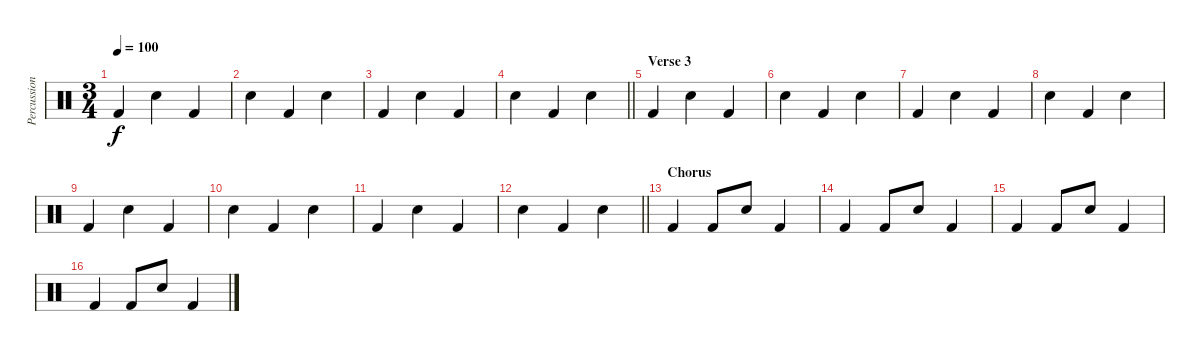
\track ("Percussion" "Percussion") {instrument percussion}
\staff {score}
\articulation defaults
\ts (3 4)
\tempo 100
\clef neutral
\ks c "Kick (hit) 2".4{dy f} "Snare (hit) 2".4 "Kick (hit) 2".4
|
"Snare (hit) 2".4 "Kick (hit) 2".4 "Snare (hit) 2".4 |
"Kick (hit) 2".4 "Snare (hit) 2".4 "Kick (hit) 2".4 |
\barLineRight lightlight "Snare (hit) 2".4 "Kick (hit) 2".4 "Snare (hit) 2".4
|
\section ("" "Verse 3")
"Kick (hit) 2".4 "Snare (hit) 2".4 "Kick (hit) 2".4 |
"Snare (hit) 2".4 "Kick (hit) 2".4 "Snare (hit) 2".4 |
"Kick (hit) 2".4 "Snare (hit) 2".4 "Kick (hit) 2".4 |
"Snare (hit) 2".4 "Kick (hit) 2".4 "Snare (hit) 2".4 |
"Kick (hit) 2".4 "Snare (hit) 2".4 "Kick (hit) 2".4 |
"Snare (hit) 2".4 "Kick (hit) 2".4 "Snare (hit) 2".4 |
"Kick (hit) 2".4 "Snare (hit) 2".4 "Kick (hit) 2".4 |
\barLineRight lightlight "Snare (hit) 2".4 "Kick (hit) 2".4 "Snare (hit) 2".4
|
\section ("" "Chorus")
"Kick (hit) 2".4 "Kick (hit) 2".8 "Snare (hit) 2".8 "Kick (hit) 2".4 |
"Kick (hit) 2".4 "Kick (hit) 2".8 "Snare (hit) 2".8 "Kick (hit) 2".4 |
"Kick (hit) 2".4 "Kick (hit) 2".8 "Snare (hit) 2".8 "Kick (hit) 2".4 |
"Kick (hit) 2".4 "Kick (hit) 2".8 "Snare (hit) 2".8 "Kick (hit) 2".4
